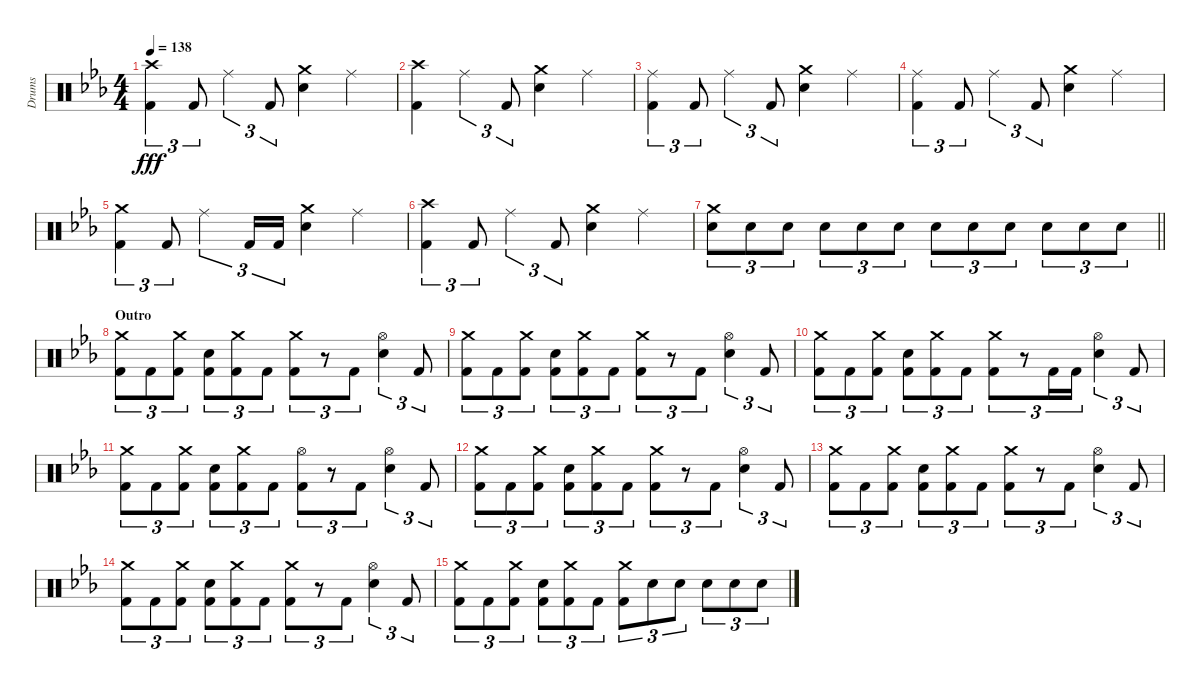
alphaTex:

\track ("Drums" "Drums") {instrument percussion}
\staff {score}
\articulation defaults
\ts (4 4)
\tempo 138
\clef neutral
\ks eb
("Crash high (hit)" "Kick (hit) 2").4{tu (3 2) dy fff} "Kick (hit) 2".8{tu (3 2)} "Ride (middle)".4{tu (3 2)} "Kick (hit) 2".8{tu (3 2)} ("Crash medium (hit)" "Snare (hit) 2").4 "Ride (middle)".4 |
("Crash high (hit)" "Kick (hit) 2").4 "Ride (middle)".4{tu (3 2)} "Kick (hit) 2".8{tu (3 2)} ("Crash medium (hit)" "Snare (hit) 2").4 "Ride (middle)".4 |
("Ride (middle)" "Kick (hit) 2").4{tu (3 2)} "Kick (hit) 2".8{tu (3 2)} "Ride (middle)".4{tu (3 2)} "Kick (hit) 2".8{tu (3 2)} ("Crash medium (hit)" "Snare (hit) 2").4 "Ride (middle)".4 |
("Ride (middle)" "Kick (hit) 2").4{tu (3 2)} "Kick (hit) 2".8{tu (3 2)} "Ride (middle)".4{tu (3 2)} "Kick (hit) 2".8{tu (3 2)} ("Crash medium (hit)" "Snare (hit) 2").4 "Ride (middle)".4 |
("Crash medium (hit)" "Kick (hit) 2").4{tu (3 2)} "Kick (hit) 2".8{tu (3 2)} "Ride (middle)".4{tu (3 2)} "Kick (hit) 2".16{tu (3 2)} "Kick (hit) 2".16{tu (3 2)} ("Crash medium (hit)" "Snare (hit) 2").4 "Ride (middle)".4 |
("Crash high (hit)" "Kick (hit) 2").4{tu (3 2)} "Kick (hit) 2".8{tu (3 2)} "Ride (middle)".4{tu (3 2)} "Kick (hit) 2".8{tu (3 2)} ("Crash medium (hit)" "Snare (hit) 2").4 "Ride (middle)".4 |
\barLineRight lightlight
("Crash medium (hit)" "Snare (hit) 2").8{tu (3 2)} "Snare (hit) 2".8{tu (3 2)} "Snare (hit) 2".8{tu (3 2)} "Snare (hit) 2".8{tu (3 2)} "Snare (hit) 2".8{tu (3 2)} "Snare (hit) 2".8{tu (3 2)} "Snare (hit) 2".8{tu (3 2)} "Snare (hit) 2".8{tu (3 2)} "Snare (hit) 2".8{tu (3 2)} "Snare (hit) 2".8{tu (3 2)} "Snare (hit) 2".8{tu (3 2)} "Snare (hit) 2".8{tu (3 2)} |
\section ("" "Outro")
("Crash medium (hit)" "Kick (hit) 2").8{tu (3 2)} "Kick (hit) 2".8{tu (3 2)} ("Crash medium (hit)" "Kick (hit) 2").8{tu (3 2)} ("Snare (hit) 2" "Kick (hit) 2").8{tu (3 2)} ("Crash medium (hit)" "Kick (hit) 2").8{tu (3 2)} "Kick (hit) 2".8{tu (3 2)} ("Crash medium (hit)" "Kick (hit) 2").8{tu (3 2)} r.8{tu (3 2)} "Kick (hit) 2".8{tu (3 2)} ("Hi-Hat (open)" "Snare (hit) 2").4{tu (3 2)} "Kick (hit) 2".8{tu (3 2)} |
("Crash medium (hit)" "Kick (hit) 2").8{tu (3 2)} "Kick (hit) 2".8{tu (3 2)} ("Crash medium (hit)" "Kick (hit) 2").8{tu (3 2)} ("Snare (hit) 2" "Kick (hit) 2").8{tu (3 2)} ("Crash medium (hit)" "Kick (hit) 2").8{tu (3 2)} "Kick (hit) 2".8{tu (3 2)} ("Crash medium (hit)" "Kick (hit) 2").8{tu (3 2)} r.8{tu (3 2)} "Kick (hit) 2".8{tu (3 2)} ("Hi-Hat (open)" "Snare (hit) 2").4{tu (3 2)} "Kick (hit) 2".8{tu (3 2)} |
("Crash medium (hit)" "Kick (hit) 2").8{tu (3 2)} "Kick (hit) 2".8{tu (3 2)} ("Crash medium (hit)" "Kick (hit) 2").8{tu (3 2)} ("Snare (hit) 2" "Kick (hit) 2").8{tu (3 2)} ("Crash medium (hit)" "Kick (hit) 2").8{tu (3 2)} "Kick (hit) 2".8{tu (3 2)} ("Crash medium (hit)" "Kick (hit) 2").8{tu (3 2)} r.8{tu (3 2)} "Kick (hit) 2".16{tu (3 2)} "Kick (hit) 2".16{tu (3 2)} ("Hi-Hat (open)" "Snare (hit) 2").4{tu (3 2)} "Kick (hit) 2".8{tu (3 2)} |
("Crash medium (hit)" "Kick (hit) 2").8{tu (3 2)} "Kick (hit) 2".8{tu (3 2)} ("Crash medium (hit)" "Kick (hit) 2").8{tu (3 2)} ("Snare (hit) 2" "Kick (hit) 2").8{tu (3 2)} ("Crash medium (hit)" "Kick (hit) 2").8{tu (3 2)} "Kick (hit) 2".8{tu (3 2)} ("Hi-Hat (open)" "Kick (hit) 2").8{tu (3 2)} r.8{tu (3 2)} "Kick (hit) 2".8{tu (3 2)} ("Hi-Hat (open)" "Snare (hit) 2").4{tu (3 2)} "Kick (hit) 2".8{tu (3 2)} |
("Crash medium (hit)" "Kick (hit) 2").8{tu (3 2)} "Kick (hit) 2".8{tu (3 2)} ("Crash medium (hit)" "Kick (hit) 2").8{tu (3 2)} ("Snare (hit) 2" "Kick (hit) 2").8{tu (3 2)} ("Crash medium (hit)" "Kick (hit) 2").8{tu (3 2)} "Kick (hit) 2".8{tu (3 2)} ("Crash medium (hit)" "Kick (hit) 2").8{tu (3 2)} r.8{tu (3 2)} "Kick (hit) 2".8{tu (3 2)} ("Hi-Hat (open)" "Snare (hit) 2").4{tu (3 2)} "Kick (hit) 2".8{tu (3 2)} |
("Crash medium (hit)" "Kick (hit) 2").8{tu (3 2)} "Kick (hit) 2".8{tu (3 2)} ("Crash medium (hit)" "Kick (hit) 2").8{tu (3 2)} ("Snare (hit) 2" "Kick (hit) 2").8{tu (3 2)} ("Crash medium (hit)" "Kick (hit) 2").8{tu (3 2)} "Kick (hit) 2".8{tu (3 2)} ("Crash medium (hit)" "Kick (hit) 2").8{tu (3 2)} r.8{tu (3 2)} "Kick (hit) 2".8{tu (3 2)} ("Hi-Hat (open)" "Snare (hit) 2").4{tu (3 2)} "Kick (hit) 2".8{tu (3 2)} |
("Crash medium (hit)" "Kick (hit) 2").8{tu (3 2)} "Kick (hit) 2".8{tu (3 2)} ("Crash medium (hit)" "Kick (hit) 2").8{tu (3 2)} ("Snare (hit) 2" "Kick (hit) 2").8{tu (3 2)} ("Crash medium (hit)" "Kick (hit) 2").8{tu (3 2)} "Kick (hit) 2".8{tu (3 2)} ("Crash medium (hit)" "Kick (hit) 2").8{tu (3 2)} r.8{tu (3 2)} "Kick (hit) 2".8{tu (3 2)} ("Hi-Hat (open)" "Snare (hit) 2").4{tu (3 2)} "Kick (hit) 2".8{tu (3 2)} |
("Crash medium (hit)" "Kick (hit) 2").8{tu (3 2)} "Kick (hit) 2".8{tu (3 2)} ("Crash medium (hit)" "Kick (hit) 2").8{tu (3 2)} ("Snare (hit) 2" "Kick (hit) 2").8{tu (3 2)} ("Crash medium (hit)" "Kick (hit) 2").8{tu (3 2)} "Kick (hit) 2".8{tu (3 2)} ("Crash medium (hit)" "Kick (hit) 2").8{tu (3 2)} "Snare (hit) 2".8{tu (3 2)} "Snare (hit) 2".8{tu (3 2)} "Snare (hit) 2".8{tu (3 2)} "Snare (hit) 2".8{tu (3 2)} "Snare (hit) 2".8{tu (3 2)}
